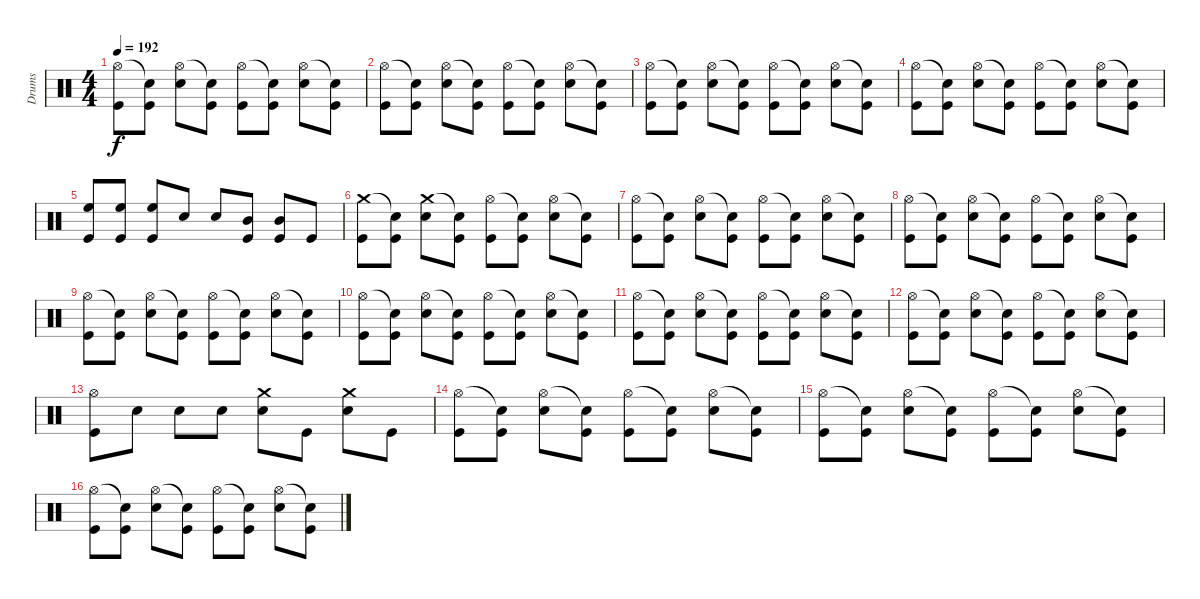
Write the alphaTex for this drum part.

\track ("Drums" "Drums") {instrument percussion}
\staff {score}
\articulation defaults
\ts (4 4)
\tempo 192
\clef neutral
\ks c
("Kick (hit)" "Hi-Hat (open)").8{dy f} ("Kick (hit)" "Snare (hit)"{t}).8 ("Snare (hit) 2" "Hi-Hat (open)").8 ("Kick (hit)" "Snare (hit)"{t}).8 ("Kick (hit)" "Hi-Hat (open)").8 ("Kick (hit)" "Snare (hit)"{t}).8 ("Snare (hit) 2" "Hi-Hat (open)").8 ("Kick (hit)" "Snare (hit)"{t}).8 |
("Kick (hit)" "Hi-Hat (open)").8 ("Kick (hit)" "Snare (hit)"{t}).8 ("Snare (hit) 2" "Hi-Hat (open)").8 ("Kick (hit)" "Snare (hit)"{t}).8 ("Kick (hit)" "Hi-Hat (open)").8 ("Kick (hit)" "Snare (hit)"{t}).8 ("Snare (hit) 2" "Hi-Hat (open)").8 ("Kick (hit)" "Snare (hit)"{t}).8 |
("Kick (hit)" "Hi-Hat (open)").8 ("Kick (hit)" "Snare (hit)"{t}).8 ("Snare (hit) 2" "Hi-Hat (open)").8 ("Kick (hit)" "Snare (hit)"{t}).8 ("Kick (hit)" "Hi-Hat (open)").8 ("Kick (hit)" "Snare (hit)"{t}).8 ("Snare (hit) 2" "Hi-Hat (open)").8 ("Kick (hit)" "Snare (hit)"{t}).8 |
("Kick (hit)" "Hi-Hat (open)").8 ("Kick (hit)" "Snare (hit)"{t}).8 ("Snare (hit) 2" "Hi-Hat (open)").8 ("Kick (hit)" "Snare (hit)"{t}).8 ("Kick (hit)" "Hi-Hat (open)").8 ("Kick (hit)" "Snare (hit)"{t}).8 ("Snare (hit) 2" "Hi-Hat (open)").8 ("Kick (hit)" "Snare (hit)"{t}).8 |
("Kick (hit)" "High Floor Tom (hit)").8 ("Kick (hit)" "High Floor Tom (hit)").8 ("Kick (hit)" "High Floor Tom (hit)").8 "Snare (hit) 2".8 "Snare (hit) 2".8 ("Kick (hit)" "Mid Tom (hit)").8 ("Kick (hit)" "Mid Tom (hit)").8 "Kick (hit)".8 |
("Kick (hit)" "Crash medium (hit)").8 ("Kick (hit)" "Snare (hit)"{t}).8 ("Snare (hit) 2" "Crash medium (hit)").8 ("Kick (hit)" "Snare (hit)"{t}).8 ("Kick (hit)" "Hi-Hat (open)").8 ("Kick (hit)" "Snare (hit)"{t}).8 ("Snare (hit) 2" "Hi-Hat (open)").8 ("Kick (hit)" "Snare (hit)"{t}).8 |
("Kick (hit)" "Hi-Hat (open)").8 ("Kick (hit)" "Snare (hit)"{t}).8 ("Snare (hit) 2" "Hi-Hat (open)").8 ("Kick (hit)" "Snare (hit)"{t}).8 ("Kick (hit)" "Hi-Hat (open)").8 ("Kick (hit)" "Snare (hit)"{t}).8 ("Snare (hit) 2" "Hi-Hat (open)").8 ("Kick (hit)" "Snare (hit)"{t}).8 |
("Kick (hit)" "Hi-Hat (open)").8 ("Kick (hit)" "Snare (hit)"{t}).8 ("Snare (hit) 2" "Hi-Hat (open)").8 ("Kick (hit)" "Snare (hit)"{t}).8 ("Kick (hit)" "Hi-Hat (open)").8 ("Kick (hit)" "Snare (hit)"{t}).8 ("Snare (hit) 2" "Hi-Hat (open)").8 ("Kick (hit)" "Snare (hit)"{t}).8 |
("Kick (hit)" "Hi-Hat (open)").8 ("Kick (hit)" "Snare (hit)"{t}).8 ("Snare (hit) 2" "Hi-Hat (open)").8 ("Kick (hit)" "Snare (hit)"{t}).8 ("Kick (hit)" "Hi-Hat (open)").8 ("Kick (hit)" "Snare (hit)"{t}).8 ("Snare (hit) 2" "Hi-Hat (open)").8 ("Kick (hit)" "Snare (hit)"{t}).8 |
("Kick (hit)" "Hi-Hat (open)").8 ("Kick (hit)" "Snare (hit)"{t}).8 ("Snare (hit) 2" "Hi-Hat (open)").8 ("Kick (hit)" "Snare (hit)"{t}).8 ("Kick (hit)" "Hi-Hat (open)").8 ("Kick (hit)" "Snare (hit)"{t}).8 ("Snare (hit) 2" "Hi-Hat (open)").8 ("Kick (hit)" "Snare (hit)"{t}).8 |
("Kick (hit)" "Hi-Hat (open)").8 ("Kick (hit)" "Snare (hit)"{t}).8 ("Snare (hit) 2" "Hi-Hat (open)").8 ("Kick (hit)" "Snare (hit)"{t}).8 ("Kick (hit)" "Hi-Hat (open)").8 ("Kick (hit)" "Snare (hit)"{t}).8 ("Snare (hit) 2" "Hi-Hat (open)").8 ("Kick (hit)" "Snare (hit)"{t}).8 |
("Kick (hit)" "Hi-Hat (open)").8 ("Kick (hit)" "Snare (hit)"{t}).8 ("Snare (hit) 2" "Hi-Hat (open)").8 ("Kick (hit)" "Snare (hit)"{t}).8 ("Kick (hit)" "Hi-Hat (open)").8 ("Kick (hit)" "Snare (hit)"{t}).8 ("Snare (hit) 2" "Hi-Hat (open)").8 ("Kick (hit)" "Snare (hit)"{t}).8 |
("Kick (hit)" "Hi-Hat (open)").8 "Snare (hit) 2".8 "Snare (hit) 2".8 "Snare (hit) 2".8 ("Snare (hit) 2" "Crash medium (hit)").8 "Kick (hit)".8 ("Snare (hit) 2" "Crash medium (hit)").8 "Kick (hit)".8 |
("Kick (hit)" "Hi-Hat (open)").8 ("Kick (hit)" "Snare (hit)"{t}).8 ("Snare (hit) 2" "Hi-Hat (open)").8 ("Kick (hit)" "Snare (hit)"{t}).8 ("Kick (hit)" "Hi-Hat (open)").8 ("Kick (hit)" "Snare (hit)"{t}).8 ("Snare (hit) 2" "Hi-Hat (open)").8 ("Kick (hit)" "Snare (hit)"{t}).8 |
("Kick (hit)" "Hi-Hat (open)").8 ("Kick (hit)" "Snare (hit)"{t}).8 ("Snare (hit) 2" "Hi-Hat (open)").8 ("Kick (hit)" "Snare (hit)"{t}).8 ("Kick (hit)" "Hi-Hat (open)").8 ("Kick (hit)" "Snare (hit)"{t}).8 ("Snare (hit) 2" "Hi-Hat (open)").8 ("Kick (hit)" "Snare (hit)"{t}).8 |
("Kick (hit)" "Hi-Hat (open)").8 ("Kick (hit)" "Snare (hit)"{t}).8 ("Snare (hit) 2" "Hi-Hat (open)").8 ("Kick (hit)" "Snare (hit)"{t}).8 ("Kick (hit)" "Hi-Hat (open)").8 ("Kick (hit)" "Snare (hit)"{t}).8 ("Snare (hit) 2" "Hi-Hat (open)").8 ("Kick (hit)" "Snare (hit)"{t}).8
